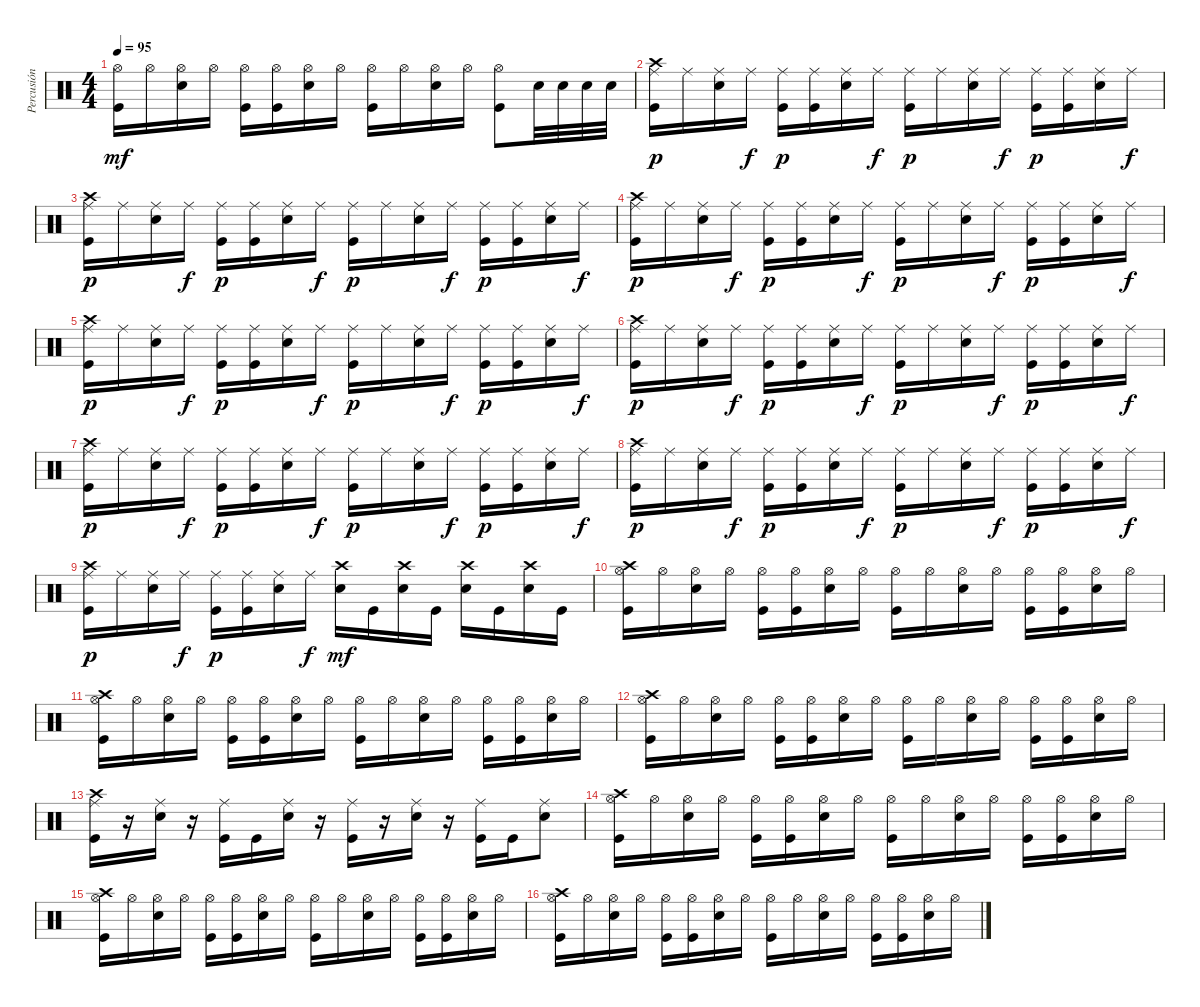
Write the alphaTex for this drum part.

\track ("Percusión" "Percusión") {instrument percussion}
\staff {score}
\articulation defaults
\ts (4 4)
\tempo 95
\clef neutral
\ks c
("Kick (hit)" "Hi-Hat (open)").16{dy mf} "Hi-Hat (open)".16 ("Snare (hit) 2" "Hi-Hat (open)").16 "Hi-Hat (open)".16 ("Kick (hit)" "Hi-Hat (open)").16 ("Kick (hit)" "Hi-Hat (open)").16 ("Snare (hit) 2" "Hi-Hat (open)").16 "Hi-Hat (open)".16 ("Kick (hit)" "Hi-Hat (open)").16 "Hi-Hat (open)".16 ("Snare (hit) 2" "Hi-Hat (open)").16 "Hi-Hat (open)".16 ("Kick (hit)" "Hi-Hat (open)").8 "Snare (hit) 2".32 "Snare (hit) 2".32 "Snare (hit) 2".32 "Snare (hit) 2".32 |
("Ride (middle)" "Kick (hit)" "Crash high (hit)").16{dy p} "Ride (middle)".16 ("Ride (middle)" "Snare (hit) 2").16 "Ride (middle)".16{dy f} ("Ride (middle)" "Kick (hit)").16{dy p} ("Ride (middle)" "Kick (hit)").16 ("Ride (middle)" "Snare (hit) 2").16 "Ride (middle)".16{dy f} ("Ride (middle)" "Kick (hit)").16{dy p} "Ride (middle)".16 ("Ride (middle)" "Snare (hit) 2").16 "Ride (middle)".16{dy f} ("Ride (middle)" "Kick (hit)").16{dy p} ("Ride (middle)" "Kick (hit)").16 ("Ride (middle)" "Snare (hit) 2").16 "Ride (middle)".16{dy f} |
("Ride (middle)" "Kick (hit)" "Crash high (hit)").16{dy p} "Ride (middle)".16 ("Ride (middle)" "Snare (hit) 2").16 "Ride (middle)".16{dy f} ("Ride (middle)" "Kick (hit)").16{dy p} ("Ride (middle)" "Kick (hit)").16 ("Ride (middle)" "Snare (hit) 2").16 "Ride (middle)".16{dy f} ("Ride (middle)" "Kick (hit)").16{dy p} "Ride (middle)".16 ("Ride (middle)" "Snare (hit) 2").16 "Ride (middle)".16{dy f} ("Ride (middle)" "Kick (hit)").16{dy p} ("Ride (middle)" "Kick (hit)").16 ("Ride (middle)" "Snare (hit) 2").16 "Ride (middle)".16{dy f} |
("Ride (middle)" "Kick (hit)" "Crash high (hit)").16{dy p} "Ride (middle)".16 ("Ride (middle)" "Snare (hit) 2").16 "Ride (middle)".16{dy f} ("Ride (middle)" "Kick (hit)").16{dy p} ("Ride (middle)" "Kick (hit)").16 ("Ride (middle)" "Snare (hit) 2").16 "Ride (middle)".16{dy f} ("Ride (middle)" "Kick (hit)").16{dy p} "Ride (middle)".16 ("Ride (middle)" "Snare (hit) 2").16 "Ride (middle)".16{dy f} ("Ride (middle)" "Kick (hit)").16{dy p} ("Ride (middle)" "Kick (hit)").16 ("Ride (middle)" "Snare (hit) 2").16 "Ride (middle)".16{dy f} |
("Ride (middle)" "Kick (hit)" "Crash high (hit)").16{dy p} "Ride (middle)".16 ("Ride (middle)" "Snare (hit) 2").16 "Ride (middle)".16{dy f} ("Ride (middle)" "Kick (hit)").16{dy p} ("Ride (middle)" "Kick (hit)").16 ("Ride (middle)" "Snare (hit) 2").16 "Ride (middle)".16{dy f} ("Ride (middle)" "Kick (hit)").16{dy p} "Ride (middle)".16 ("Ride (middle)" "Snare (hit) 2").16 "Ride (middle)".16{dy f} ("Ride (middle)" "Kick (hit)").16{dy p} ("Ride (middle)" "Kick (hit)").16 ("Ride (middle)" "Snare (hit) 2").16 "Ride (middle)".16{dy f} |
("Ride (middle)" "Kick (hit)" "Crash high (hit)").16{dy p} "Ride (middle)".16 ("Ride (middle)" "Snare (hit) 2").16 "Ride (middle)".16{dy f} ("Ride (middle)" "Kick (hit)").16{dy p} ("Ride (middle)" "Kick (hit)").16 ("Ride (middle)" "Snare (hit) 2").16 "Ride (middle)".16{dy f} ("Ride (middle)" "Kick (hit)").16{dy p} "Ride (middle)".16 ("Ride (middle)" "Snare (hit) 2").16 "Ride (middle)".16{dy f} ("Ride (middle)" "Kick (hit)").16{dy p} ("Ride (middle)" "Kick (hit)").16 ("Ride (middle)" "Snare (hit) 2").16 "Ride (middle)".16{dy f} |
("Ride (middle)" "Kick (hit)" "Crash high (hit)").16{dy p} "Ride (middle)".16 ("Ride (middle)" "Snare (hit) 2").16 "Ride (middle)".16{dy f} ("Ride (middle)" "Kick (hit)").16{dy p} ("Ride (middle)" "Kick (hit)").16 ("Ride (middle)" "Snare (hit) 2").16 "Ride (middle)".16{dy f} ("Ride (middle)" "Kick (hit)").16{dy p} "Ride (middle)".16 ("Ride (middle)" "Snare (hit) 2").16 "Ride (middle)".16{dy f} ("Ride (middle)" "Kick (hit)").16{dy p} ("Ride (middle)" "Kick (hit)").16 ("Ride (middle)" "Snare (hit) 2").16 "Ride (middle)".16{dy f} |
("Ride (middle)" "Kick (hit)" "Crash high (hit)").16{dy p} "Ride (middle)".16 ("Ride (middle)" "Snare (hit) 2").16 "Ride (middle)".16{dy f} ("Ride (middle)" "Kick (hit)").16{dy p} ("Ride (middle)" "Kick (hit)").16 ("Ride (middle)" "Snare (hit) 2").16 "Ride (middle)".16{dy f} ("Ride (middle)" "Kick (hit)").16{dy p} "Ride (middle)".16 ("Ride (middle)" "Snare (hit) 2").16 "Ride (middle)".16{dy f} ("Ride (middle)" "Kick (hit)").16{dy p} ("Ride (middle)" "Kick (hit)").16 ("Ride (middle)" "Snare (hit) 2").16 "Ride (middle)".16{dy f} |
("Ride (middle)" "Kick (hit)" "Crash high (hit)").16{dy p} "Ride (middle)".16 ("Ride (middle)" "Snare (hit) 2").16 "Ride (middle)".16{dy f} ("Ride (middle)" "Kick (hit)").16{dy p} ("Ride (middle)" "Kick (hit)").16 ("Ride (middle)" "Snare (hit) 2").16 "Ride (middle)".16{dy f} ("Snare (hit) 2" "Crash high (hit)").16{dy mf} "Kick (hit)".16 ("Snare (hit) 2" "Crash high (hit)").16 "Kick (hit)".16 ("Snare (hit) 2" "Crash high (hit)").16 "Kick (hit)".16 ("Snare (hit) 2" "Crash high (hit)").16 "Kick (hit)".16 |
("Kick (hit)" "Hi-Hat (open)" "Crash high (hit)").16 "Hi-Hat (open)".16 ("Snare (hit) 2" "Hi-Hat (open)").16 "Hi-Hat (open)".16 ("Kick (hit)" "Hi-Hat (open)").16 ("Kick (hit)" "Hi-Hat (open)").16 ("Snare (hit) 2" "Hi-Hat (open)").16 "Hi-Hat (open)".16 ("Kick (hit)" "Hi-Hat (open)").16 "Hi-Hat (open)".16 ("Snare (hit) 2" "Hi-Hat (open)").16 "Hi-Hat (open)".16 ("Kick (hit)" "Hi-Hat (open)").16 ("Kick (hit)" "Hi-Hat (open)").16 ("Snare (hit) 2" "Hi-Hat (open)").16 "Hi-Hat (open)".16 |
("Kick (hit)" "Hi-Hat (open)" "Crash high (hit)").16 "Hi-Hat (open)".16 ("Snare (hit) 2" "Hi-Hat (open)").16 "Hi-Hat (open)".16 ("Kick (hit)" "Hi-Hat (open)").16 ("Kick (hit)" "Hi-Hat (open)").16 ("Snare (hit) 2" "Hi-Hat (open)").16 "Hi-Hat (open)".16 ("Kick (hit)" "Hi-Hat (open)").16 "Hi-Hat (open)".16 ("Snare (hit) 2" "Hi-Hat (open)").16 "Hi-Hat (open)".16 ("Kick (hit)" "Hi-Hat (open)").16 ("Kick (hit)" "Hi-Hat (open)").16 ("Snare (hit) 2" "Hi-Hat (open)").16 "Hi-Hat (open)".16 |
("Kick (hit)" "Hi-Hat (open)" "Crash high (hit)").16 "Hi-Hat (open)".16 ("Snare (hit) 2" "Hi-Hat (open)").16 "Hi-Hat (open)".16 ("Kick (hit)" "Hi-Hat (open)").16 ("Kick (hit)" "Hi-Hat (open)").16 ("Snare (hit) 2" "Hi-Hat (open)").16 "Hi-Hat (open)".16 ("Kick (hit)" "Hi-Hat (open)").16 "Hi-Hat (open)".16 ("Snare (hit) 2" "Hi-Hat (open)").16 "Hi-Hat (open)".16 ("Kick (hit)" "Hi-Hat (open)").16 ("Kick (hit)" "Hi-Hat (open)").16 ("Snare (hit) 2" "Hi-Hat (open)").16 "Hi-Hat (open)".16 |
("Ride (middle)" "Kick (hit)" "Crash high (hit)").16 r.16 ("Ride (middle)" "Snare (hit) 2").16 r.16 ("Ride (middle)" "Kick (hit)").16 "Kick (hit)".16 ("Ride (middle)" "Snare (hit) 2").16 r.16 ("Ride (middle)" "Kick (hit)").16 r.16 ("Ride (middle)" "Snare (hit) 2").16 r.16 ("Ride (middle)" "Kick (hit)").16 "Kick (hit)".16 ("Ride (middle)" "Snare (hit) 2").8 |
("Kick (hit)" "Hi-Hat (open)" "Crash high (hit)").16 "Hi-Hat (open)".16 ("Snare (hit) 2" "Hi-Hat (open)").16 "Hi-Hat (open)".16 ("Kick (hit)" "Hi-Hat (open)").16 ("Kick (hit)" "Hi-Hat (open)").16 ("Snare (hit) 2" "Hi-Hat (open)").16 "Hi-Hat (open)".16 ("Kick (hit)" "Hi-Hat (open)").16 "Hi-Hat (open)".16 ("Snare (hit) 2" "Hi-Hat (open)").16 "Hi-Hat (open)".16 ("Kick (hit)" "Hi-Hat (open)").16 ("Kick (hit)" "Hi-Hat (open)").16 ("Snare (hit) 2" "Hi-Hat (open)").16 "Hi-Hat (open)".16 |
("Kick (hit)" "Hi-Hat (open)" "Crash high (hit)").16 "Hi-Hat (open)".16 ("Snare (hit) 2" "Hi-Hat (open)").16 "Hi-Hat (open)".16 ("Kick (hit)" "Hi-Hat (open)").16 ("Kick (hit)" "Hi-Hat (open)").16 ("Snare (hit) 2" "Hi-Hat (open)").16 "Hi-Hat (open)".16 ("Kick (hit)" "Hi-Hat (open)").16 "Hi-Hat (open)".16 ("Snare (hit) 2" "Hi-Hat (open)").16 "Hi-Hat (open)".16 ("Kick (hit)" "Hi-Hat (open)").16 ("Kick (hit)" "Hi-Hat (open)").16 ("Snare (hit) 2" "Hi-Hat (open)").16 "Hi-Hat (open)".16 |
("Kick (hit)" "Hi-Hat (open)" "Crash high (hit)").16 "Hi-Hat (open)".16 ("Snare (hit) 2" "Hi-Hat (open)").16 "Hi-Hat (open)".16 ("Kick (hit)" "Hi-Hat (open)").16 ("Kick (hit)" "Hi-Hat (open)").16 ("Snare (hit) 2" "Hi-Hat (open)").16 "Hi-Hat (open)".16 ("Kick (hit)" "Hi-Hat (open)").16 "Hi-Hat (open)".16 ("Snare (hit) 2" "Hi-Hat (open)").16 "Hi-Hat (open)".16 ("Kick (hit)" "Hi-Hat (open)").16 ("Kick (hit)" "Hi-Hat (open)").16 ("Snare (hit) 2" "Hi-Hat (open)").16 "Hi-Hat (open)".16
